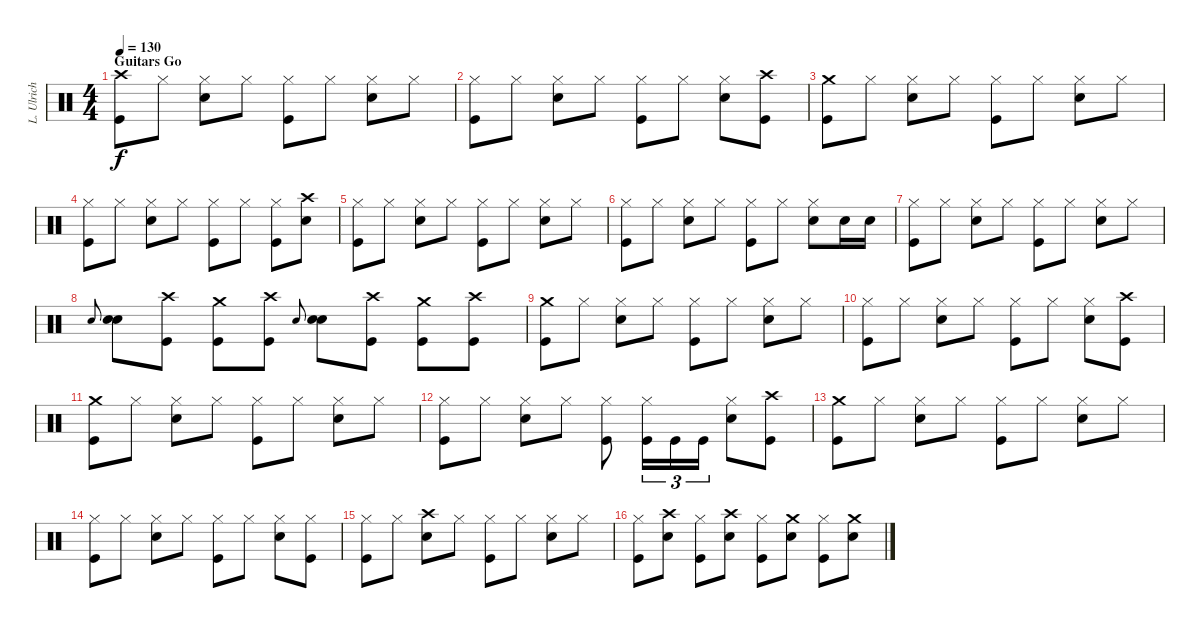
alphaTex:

\track ("L. Ulrich" "L. Ulrich") {instrument percussion}
\staff {score}
\articulation defaults
\ts (4 4)
\section ("" "Guitars Go")
\tempo 130
\clef neutral
\ks c
("Crash high (hit)" "Kick (hit)").8{dy f} "Hi-Hat (closed)".8 ("Hi-Hat (closed)" "Snare (hit) 2").8 "Hi-Hat (closed)".8 ("Hi-Hat (closed)" "Kick (hit)").8 "Hi-Hat (closed)".8 ("Hi-Hat (closed)" "Snare (hit) 2").8 "Hi-Hat (closed)".8 |
("Hi-Hat (closed)" "Kick (hit)").8 "Hi-Hat (closed)".8 ("Hi-Hat (closed)" "Snare (hit) 2").8 "Hi-Hat (closed)".8 ("Hi-Hat (closed)" "Kick (hit)").8 "Hi-Hat (closed)".8 ("Hi-Hat (closed)" "Snare (hit) 2").8 ("Crash high (hit)" "Kick (hit)").8 |
("Crash medium (hit)" "Kick (hit)").8 "Hi-Hat (closed)".8 ("Hi-Hat (closed)" "Snare (hit) 2").8 "Hi-Hat (closed)".8 ("Hi-Hat (closed)" "Kick (hit)").8 "Hi-Hat (closed)".8 ("Hi-Hat (closed)" "Snare (hit) 2").8 "Hi-Hat (closed)".8 |
("Hi-Hat (closed)" "Kick (hit)").8 "Hi-Hat (closed)".8 ("Hi-Hat (closed)" "Snare (hit) 2").8 "Hi-Hat (closed)".8 ("Hi-Hat (closed)" "Kick (hit)").8 "Hi-Hat (closed)".8 ("Hi-Hat (closed)" "Kick (hit)").8 ("Crash high (hit)" "Snare (hit) 2").8 |
("Hi-Hat (closed)" "Kick (hit)").8 "Hi-Hat (closed)".8 ("Hi-Hat (closed)" "Snare (hit) 2").8 "Hi-Hat (closed)".8 ("Hi-Hat (closed)" "Kick (hit)").8 "Hi-Hat (closed)".8 ("Hi-Hat (closed)" "Snare (hit) 2").8 "Hi-Hat (closed)".8 |
("Hi-Hat (closed)" "Kick (hit)").8 "Hi-Hat (closed)".8 ("Hi-Hat (closed)" "Snare (hit) 2").8 "Hi-Hat (closed)".8 ("Hi-Hat (closed)" "Kick (hit)").8 "Hi-Hat (closed)".8 ("Hi-Hat (closed)" "Snare (hit) 2").8 "Snare (hit) 2".16 "Snare (hit) 2".16 |
("Hi-Hat (closed)" "Kick (hit)").8 "Hi-Hat (closed)".8 ("Hi-Hat (closed)" "Snare (hit) 2").8 "Hi-Hat (closed)".8 ("Hi-Hat (closed)" "Kick (hit)").8 "Hi-Hat (closed)".8 ("Hi-Hat (closed)" "Snare (hit) 2").8 "Hi-Hat (closed)".8 |
"Snare (hit) 2".8{gr onbeat} ("Snare (hit) 2" "Snare (hit) 2").8 ("Crash high (hit)" "Kick (hit)").8 ("Crash medium (hit)" "Kick (hit)").8 ("Crash high (hit)" "Kick (hit)").8 "Snare (hit) 2".8{gr onbeat} ("Snare (hit) 2" "Snare (hit) 2").8 ("Crash high (hit)" "Kick (hit)").8 ("Crash medium (hit)" "Kick (hit)").8 ("Crash high (hit)" "Kick (hit)").8 |
("Crash medium (hit)" "Kick (hit)").8 "Hi-Hat (closed)".8 ("Hi-Hat (closed)" "Snare (hit) 2").8 "Hi-Hat (closed)".8 ("Hi-Hat (closed)" "Kick (hit)").8 "Hi-Hat (closed)".8 ("Hi-Hat (closed)" "Snare (hit) 2").8 "Hi-Hat (closed)".8 |
("Hi-Hat (closed)" "Kick (hit)").8 "Hi-Hat (closed)".8 ("Hi-Hat (closed)" "Snare (hit) 2").8 "Hi-Hat (closed)".8 ("Hi-Hat (closed)" "Kick (hit)").8 "Hi-Hat (closed)".8 ("Hi-Hat (closed)" "Snare (hit) 2").8 ("Crash high (hit)" "Kick (hit)").8 |
("Crash medium (hit)" "Kick (hit)").8 "Hi-Hat (closed)".8 ("Hi-Hat (closed)" "Snare (hit) 2").8 "Hi-Hat (closed)".8 ("Hi-Hat (closed)" "Kick (hit)").8 "Hi-Hat (closed)".8 ("Hi-Hat (closed)" "Snare (hit) 2").8 "Hi-Hat (closed)".8 |
("Hi-Hat (closed)" "Kick (hit)").8 "Hi-Hat (closed)".8 ("Hi-Hat (closed)" "Snare (hit) 2").8 "Hi-Hat (closed)".8 ("Hi-Hat (closed)" "Kick (hit)").8 ("Hi-Hat (closed)" "Kick (hit)").16{tu (3 2)} "Kick (hit)".16{tu (3 2)} "Kick (hit)".16{tu (3 2)} ("Hi-Hat (closed)" "Snare (hit) 2").8 ("Crash high (hit)" "Kick (hit)").8 |
("Crash medium (hit)" "Kick (hit)").8 "Hi-Hat (closed)".8 ("Hi-Hat (closed)" "Snare (hit) 2").8 "Hi-Hat (closed)".8 ("Hi-Hat (closed)" "Kick (hit)").8 "Hi-Hat (closed)".8 ("Hi-Hat (closed)" "Snare (hit) 2").8 "Hi-Hat (closed)".8 |
("Hi-Hat (closed)" "Kick (hit)").8 "Hi-Hat (closed)".8 ("Hi-Hat (closed)" "Snare (hit) 2").8 "Hi-Hat (closed)".8 ("Hi-Hat (closed)" "Kick (hit)").8 "Hi-Hat (closed)".8 ("Hi-Hat (closed)" "Snare (hit) 2").8 ("Hi-Hat (closed)" "Kick (hit)").8 |
("Hi-Hat (closed)" "Kick (hit)").8 "Hi-Hat (closed)".8 ("Crash high (hit)" "Snare (hit) 2").8 "Hi-Hat (closed)".8 ("Hi-Hat (closed)" "Kick (hit)").8 "Hi-Hat (closed)".8 ("Hi-Hat (closed)" "Snare (hit) 2").8 "Hi-Hat (closed)".8 |
("Hi-Hat (closed)" "Kick (hit)").8 ("Crash high (hit)" "Snare (hit) 2").8 ("Hi-Hat (closed)" "Kick (hit)").8 ("Crash high (hit)" "Snare (hit) 2").8 ("Hi-Hat (closed)" "Kick (hit)").8 ("Crash medium (hit)" "Snare (hit) 2").8 ("Hi-Hat (closed)" "Kick (hit)").8 ("Crash medium (hit)" "Snare (hit) 2").8
